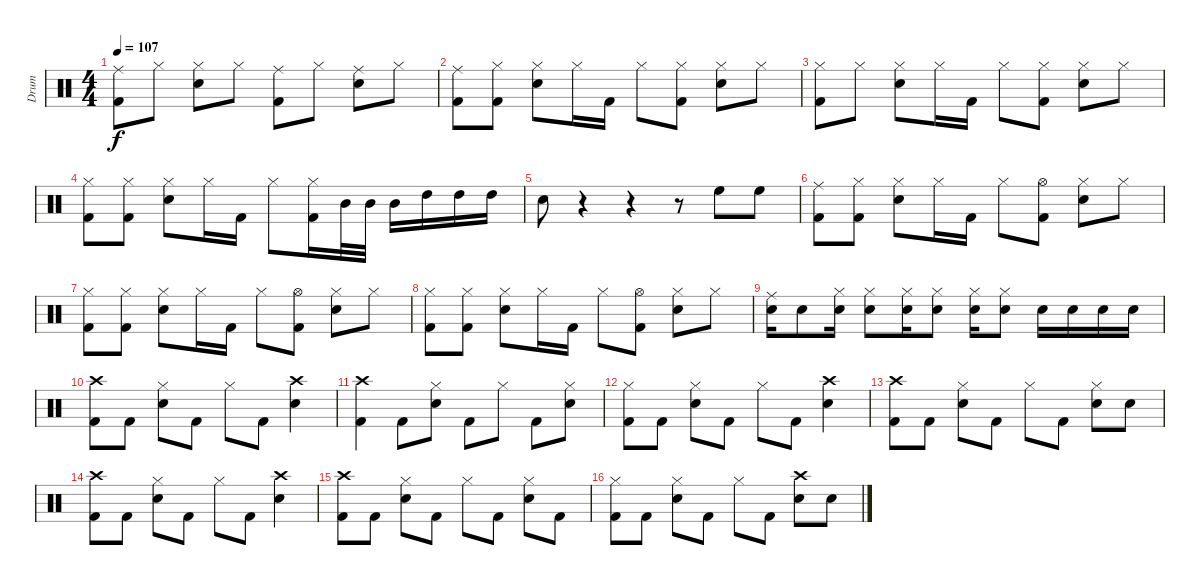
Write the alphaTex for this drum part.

\track ("Drum" "Drum") {instrument percussion}
\staff {score}
\articulation defaults
\ts (4 4)
\tempo 107
\clef neutral
\ks c
("Ride (middle)" "Kick (hit) 2").8{dy f} "Hi-Hat (closed)".8 ("Hi-Hat (closed)" "Snare (hit) 2").8 "Hi-Hat (closed)".8 ("Ride (middle)" "Kick (hit) 2").8 "Hi-Hat (closed)".8 ("Ride (middle)" "Snare (hit) 2").8 "Hi-Hat (closed)".8 |
("Ride (middle)" "Kick (hit) 2").8 ("Hi-Hat (closed)" "Kick (hit) 2").8 ("Hi-Hat (closed)" "Snare (hit) 2").8 "Hi-Hat (closed)".16 "Kick (hit) 2".16 "Hi-Hat (closed)".8 ("Hi-Hat (closed)" "Kick (hit) 2").8 ("Hi-Hat (closed)" "Snare (hit) 2").8 "Hi-Hat (closed)".8 |
("Hi-Hat (closed)" "Kick (hit) 2").8 "Hi-Hat (closed)".8 ("Hi-Hat (closed)" "Snare (hit) 2").8 "Hi-Hat (closed)".16 "Kick (hit) 2".16 "Hi-Hat (closed)".8 ("Hi-Hat (closed)" "Kick (hit) 2").8 ("Hi-Hat (closed)" "Snare (hit) 2").8 "Hi-Hat (closed)".8 |
("Hi-Hat (closed)" "Kick (hit) 2").8 ("Hi-Hat (closed)" "Kick (hit) 2").8 ("Hi-Hat (closed)" "Snare (hit) 2").8 "Hi-Hat (closed)".16 "Kick (hit) 2".16 "Hi-Hat (closed)".8 ("Hi-Hat (closed)" "Kick (hit) 2").16 "Mid Tom (hit)".32 "Mid Tom (hit)".32 "Mid Tom (hit)".16 "High Tom (hit)".16 "High Tom (hit)".16 "High Tom (hit)".16 |
"Snare (hit) 2".8 r.4 r.4 r.8 "High Floor Tom (hit)".8 "High Floor Tom (hit)".8 |
("Ride (middle)" "Kick (hit) 2").8 ("Hi-Hat (closed)" "Kick (hit) 2").8 ("Hi-Hat (closed)" "Snare (hit) 2").8 "Hi-Hat (closed)".16 "Kick (hit) 2".16 "Hi-Hat (closed)".8 ("Hi-Hat (open)" "Kick (hit) 2").8 ("Hi-Hat (closed)" "Snare (hit) 2").8 "Hi-Hat (closed)".8 |
("Hi-Hat (closed)" "Kick (hit) 2").8 ("Hi-Hat (closed)" "Kick (hit) 2").8 ("Hi-Hat (closed)" "Snare (hit) 2").8 "Hi-Hat (closed)".16 "Kick (hit) 2".16 "Hi-Hat (closed)".8 ("Hi-Hat (open)" "Kick (hit) 2").8 ("Hi-Hat (closed)" "Snare (hit) 2").8 "Hi-Hat (closed)".8 |
("Hi-Hat (closed)" "Kick (hit) 2").8 ("Hi-Hat (closed)" "Kick (hit) 2").8 ("Hi-Hat (closed)" "Snare (hit) 2").8 "Hi-Hat (closed)".16 "Kick (hit) 2".16 "Hi-Hat (closed)".8 ("Hi-Hat (open)" "Kick (hit) 2").8 ("Hi-Hat (closed)" "Snare (hit) 2").8 "Hi-Hat (closed)".8 |
("Ride (middle)" "Snare (hit) 2").16 "Snare (hit) 2".8 ("Hi-Hat (closed)" "Snare (hit) 2").16 ("Hi-Hat (closed)" "Snare (hit) 2").8 ("Hi-Hat (closed)" "Snare (hit) 2").16 ("Hi-Hat (closed)" "Snare (hit) 2").8 ("Hi-Hat (closed)" "Snare (hit) 2").16 ("Hi-Hat (closed)" "Snare (hit) 2").8 "Snare (hit) 2".16 "Snare (hit) 2".16 "Snare (hit) 2".16 "Snare (hit) 2".16 |
("Crash high (hit)" "Kick (hit) 2").8 "Kick (hit) 2".8 ("Hi-Hat (closed)" "Snare (hit) 2").8 "Kick (hit) 2".8 "Hi-Hat (closed)".8 "Kick (hit) 2".8 ("Crash high (hit)" "Snare (hit) 2").4 |
("Crash high (hit)" "Kick (hit) 2").4 "Kick (hit) 2".8 ("Hi-Hat (closed)" "Snare (hit) 2").8 "Kick (hit) 2".8 "Hi-Hat (closed)".8 "Kick (hit) 2".8 ("Hi-Hat (closed)" "Snare (hit) 2").8 |
("Hi-Hat (closed)" "Kick (hit) 2").8 "Kick (hit) 2".8 ("Hi-Hat (closed)" "Snare (hit) 2").8 "Kick (hit) 2".8 "Hi-Hat (closed)".8 "Kick (hit) 2".8 ("Crash high (hit)" "Snare (hit) 2").4 |
("Crash high (hit)" "Kick (hit) 2").8 "Kick (hit) 2".8 ("Hi-Hat (closed)" "Snare (hit) 2").8 "Kick (hit) 2".8 "Hi-Hat (closed)".8 "Kick (hit) 2".8 ("Hi-Hat (closed)" "Snare (hit) 2").8 "Snare (hit) 2".8 |
("Crash high (hit)" "Kick (hit) 2").8 "Kick (hit) 2".8 ("Hi-Hat (closed)" "Snare (hit) 2").8 "Kick (hit) 2".8 "Hi-Hat (closed)".8 "Kick (hit) 2".8 ("Crash high (hit)" "Snare (hit) 2").4 |
("Crash high (hit)" "Kick (hit) 2").8 "Kick (hit) 2".8 ("Hi-Hat (closed)" "Snare (hit) 2").8 "Kick (hit) 2".8 "Hi-Hat (closed)".8 "Kick (hit) 2".8 ("Hi-Hat (closed)" "Snare (hit) 2").8 "Kick (hit) 2".8 |
("Hi-Hat (closed)" "Kick (hit) 2").8 "Kick (hit) 2".8 ("Hi-Hat (closed)" "Snare (hit) 2").8 "Kick (hit) 2".8 "Hi-Hat (closed)".8 "Kick (hit) 2".8 ("Crash high (hit)" "Snare (hit) 2").8 "Snare (hit) 2".8
